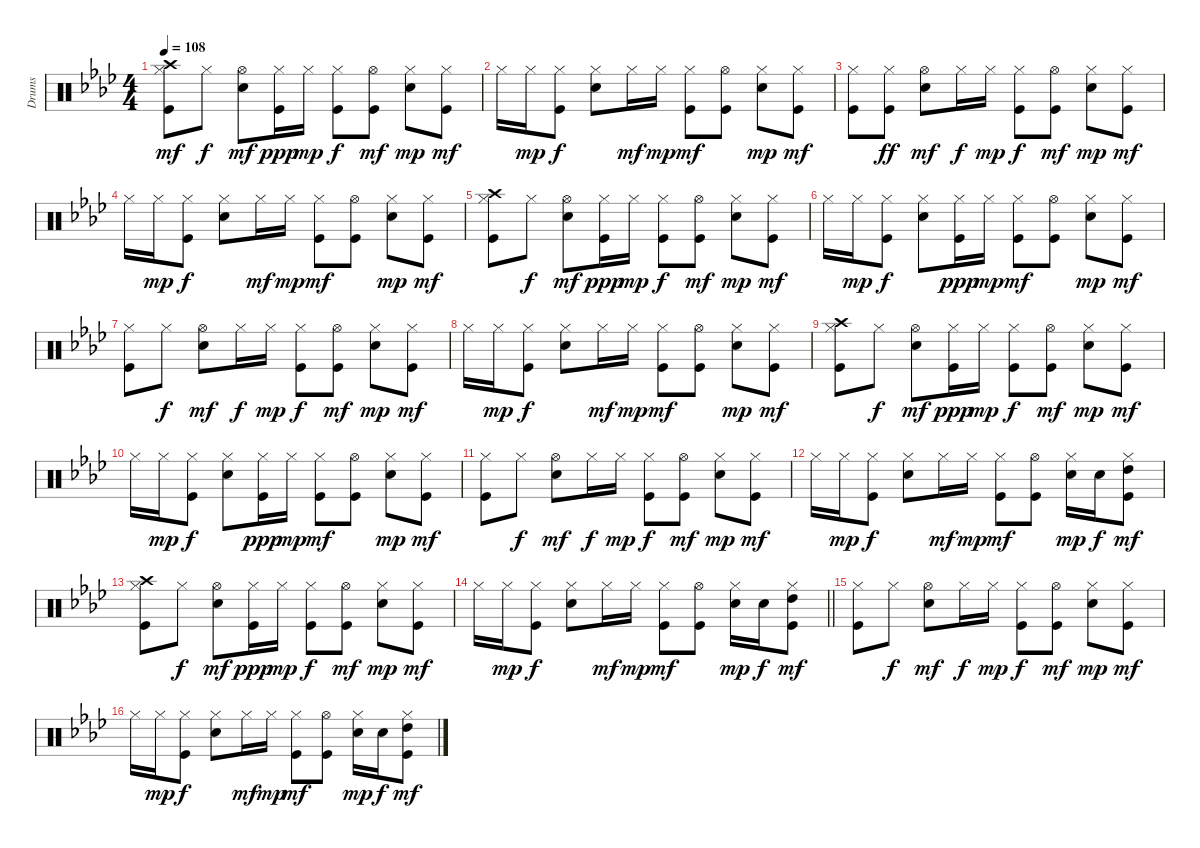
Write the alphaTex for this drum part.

\track ("Drums" "Drums") {instrument percussion}
\staff {score}
\articulation defaults
\ts (4 4)
\tempo 108
\clef neutral
\ks ab
("Kick (hit)" "Hi-Hat (closed)" "Crash high (hit)").8{dy mf} "Hi-Hat (closed)".8{dy f} ("Electric Snare (hit)" "Hi-Hat (open)").8{dy mf} ("Hi-Hat (closed)" "Kick (hit)").16{dy ppp} "Hi-Hat (closed)".16{dy mp} ("Kick (hit)" "Hi-Hat (closed)").8{dy f} ("Kick (hit)" "Hi-Hat (open)").8{dy mf} ("Electric Snare (hit)" "Hi-Hat (closed)").8{dy mp} ("Kick (hit)" "Hi-Hat (closed)").8{dy mf} |
"Hi-Hat (closed)".16 "Hi-Hat (closed)".16{dy mp} ("Kick (hit)" "Hi-Hat (closed)").8{dy f} ("Electric Snare (hit)" "Hi-Hat (closed)").8 "Hi-Hat (closed)".16{dy mf} "Hi-Hat (closed)".16{dy mp} ("Kick (hit)" "Hi-Hat (closed)").8{dy mf} ("Kick (hit)" "Hi-Hat (open)").8 ("Electric Snare (hit)" "Hi-Hat (closed)").8{dy mp} ("Kick (hit)" "Hi-Hat (closed)").8{dy mf} |
("Kick (hit)" "Hi-Hat (closed)").8 ("Kick (hit)" "Hi-Hat (closed)").8{dy ff} ("Electric Snare (hit)" "Hi-Hat (open)").8{dy mf} "Hi-Hat (closed)".16{dy f} "Hi-Hat (closed)".16{dy mp} ("Kick (hit)" "Hi-Hat (closed)").8{dy f} ("Kick (hit)" "Hi-Hat (open)").8{dy mf} ("Electric Snare (hit)" "Hi-Hat (closed)").8{dy mp} ("Kick (hit)" "Hi-Hat (closed)").8{dy mf} |
"Hi-Hat (closed)".16 "Hi-Hat (closed)".16{dy mp} ("Kick (hit)" "Hi-Hat (closed)").8{dy f} ("Electric Snare (hit)" "Hi-Hat (closed)").8 "Hi-Hat (closed)".16{dy mf} "Hi-Hat (closed)".16{dy mp} ("Kick (hit)" "Hi-Hat (closed)").8{dy mf} ("Kick (hit)" "Hi-Hat (open)").8 ("Electric Snare (hit)" "Hi-Hat (closed)").8{dy mp} ("Kick (hit)" "Hi-Hat (closed)").8{dy mf} |
("Kick (hit)" "Hi-Hat (closed)" "Crash high (hit)").8 "Hi-Hat (closed)".8{dy f} ("Electric Snare (hit)" "Hi-Hat (open)").8{dy mf} ("Hi-Hat (closed)" "Kick (hit)").16{dy ppp} "Hi-Hat (closed)".16{dy mp} ("Kick (hit)" "Hi-Hat (closed)").8{dy f} ("Kick (hit)" "Hi-Hat (open)").8{dy mf} ("Electric Snare (hit)" "Hi-Hat (closed)").8{dy mp} ("Kick (hit)" "Hi-Hat (closed)").8{dy mf} |
"Hi-Hat (closed)".16 "Hi-Hat (closed)".16{dy mp} ("Kick (hit)" "Hi-Hat (closed)").8{dy f} ("Electric Snare (hit)" "Hi-Hat (closed)").8 ("Hi-Hat (closed)" "Kick (hit)").16{dy ppp} "Hi-Hat (closed)".16{dy mp} ("Kick (hit)" "Hi-Hat (closed)").8{dy mf} ("Kick (hit)" "Hi-Hat (open)").8 ("Electric Snare (hit)" "Hi-Hat (closed)").8{dy mp} ("Kick (hit)" "Hi-Hat (closed)").8{dy mf} |
("Kick (hit)" "Hi-Hat (closed)").8 "Hi-Hat (closed)".8{dy f} ("Electric Snare (hit)" "Hi-Hat (open)").8{dy mf} "Hi-Hat (closed)".16{dy f} "Hi-Hat (closed)".16{dy mp} ("Kick (hit)" "Hi-Hat (closed)").8{dy f} ("Kick (hit)" "Hi-Hat (open)").8{dy mf} ("Electric Snare (hit)" "Hi-Hat (closed)").8{dy mp} ("Kick (hit)" "Hi-Hat (closed)").8{dy mf} |
"Hi-Hat (closed)".16 "Hi-Hat (closed)".16{dy mp} ("Kick (hit)" "Hi-Hat (closed)").8{dy f} ("Electric Snare (hit)" "Hi-Hat (closed)").8 "Hi-Hat (closed)".16{dy mf} "Hi-Hat (closed)".16{dy mp} ("Kick (hit)" "Hi-Hat (closed)").8{dy mf} ("Kick (hit)" "Hi-Hat (open)").8 ("Electric Snare (hit)" "Hi-Hat (closed)").8{dy mp} ("Kick (hit)" "Hi-Hat (closed)").8{dy mf} |
("Kick (hit)" "Hi-Hat (closed)" "Crash high (hit)").8 "Hi-Hat (closed)".8{dy f} ("Electric Snare (hit)" "Hi-Hat (open)").8{dy mf} ("Hi-Hat (closed)" "Kick (hit)").16{dy ppp} "Hi-Hat (closed)".16{dy mp} ("Kick (hit)" "Hi-Hat (closed)").8{dy f} ("Kick (hit)" "Hi-Hat (open)").8{dy mf} ("Electric Snare (hit)" "Hi-Hat (closed)").8{dy mp} ("Kick (hit)" "Hi-Hat (closed)").8{dy mf} |
"Hi-Hat (closed)".16 "Hi-Hat (closed)".16{dy mp} ("Kick (hit)" "Hi-Hat (closed)").8{dy f} ("Electric Snare (hit)" "Hi-Hat (closed)").8 ("Hi-Hat (closed)" "Kick (hit)").16{dy ppp} "Hi-Hat (closed)".16{dy mp} ("Kick (hit)" "Hi-Hat (closed)").8{dy mf} ("Kick (hit)" "Hi-Hat (open)").8 ("Electric Snare (hit)" "Hi-Hat (closed)").8{dy mp} ("Kick (hit)" "Hi-Hat (closed)").8{dy mf} |
("Kick (hit)" "Hi-Hat (closed)").8 "Hi-Hat (closed)".8{dy f} ("Electric Snare (hit)" "Hi-Hat (open)").8{dy mf} "Hi-Hat (closed)".16{dy f} "Hi-Hat (closed)".16{dy mp} ("Kick (hit)" "Hi-Hat (closed)").8{dy f} ("Kick (hit)" "Hi-Hat (open)").8{dy mf} ("Electric Snare (hit)" "Hi-Hat (closed)").8{dy mp} ("Kick (hit)" "Hi-Hat (closed)").8{dy mf} |
"Hi-Hat (closed)".16 "Hi-Hat (closed)".16{dy mp} ("Kick (hit)" "Hi-Hat (closed)").8{dy f} ("Electric Snare (hit)" "Hi-Hat (closed)").8 "Hi-Hat (closed)".16{dy mf} "Hi-Hat (closed)".16{dy mp} ("Kick (hit)" "Hi-Hat (closed)").8{dy mf} ("Kick (hit)" "Hi-Hat (open)").8 ("Electric Snare (hit)" "Hi-Hat (closed)").16{dy mp} "Electric Snare (hit)".16{dy f} ("Kick (hit)" "Hi-Hat (closed)" "High Tom (hit)").8{dy mf} |
("Kick (hit)" "Hi-Hat (closed)" "Crash high (hit)").8 "Hi-Hat (closed)".8{dy f} ("Electric Snare (hit)" "Hi-Hat (open)").8{dy mf} ("Hi-Hat (closed)" "Kick (hit)").16{dy ppp} "Hi-Hat (closed)".16{dy mp} ("Kick (hit)" "Hi-Hat (closed)").8{dy f} ("Kick (hit)" "Hi-Hat (open)").8{dy mf} ("Electric Snare (hit)" "Hi-Hat (closed)").8{dy mp} ("Kick (hit)" "Hi-Hat (closed)").8{dy mf} |
\barLineRight lightlight "Hi-Hat (closed)".16 "Hi-Hat (closed)".16{dy mp}
("Kick (hit)" "Hi-Hat (closed)").8{dy f} ("Electric Snare (hit)" "Hi-Hat (closed)").8 "Hi-Hat (closed)".16{dy mf} "Hi-Hat (closed)".16{dy mp} ("Kick (hit)" "Hi-Hat (closed)").8{dy mf} ("Kick (hit)" "Hi-Hat (open)").8 ("Electric Snare (hit)" "Hi-Hat (closed)").16{dy mp} "Electric Snare (hit)".16{dy f} ("Kick (hit)" "Hi-Hat (closed)" "High Tom (hit)").8{dy mf} |
("Kick (hit)" "Hi-Hat (closed)").8 "Hi-Hat (closed)".8{dy f} ("Electric Snare (hit)" "Hi-Hat (open)").8{dy mf} "Hi-Hat (closed)".16{dy f} "Hi-Hat (closed)".16{dy mp} ("Kick (hit)" "Hi-Hat (closed)").8{dy f} ("Kick (hit)" "Hi-Hat (open)").8{dy mf} ("Electric Snare (hit)" "Hi-Hat (closed)").8{dy mp} ("Kick (hit)" "Hi-Hat (closed)").8{dy mf} |
"Hi-Hat (closed)".16 "Hi-Hat (closed)".16{dy mp} ("Kick (hit)" "Hi-Hat (closed)").8{dy f} ("Electric Snare (hit)" "Hi-Hat (closed)").8 "Hi-Hat (closed)".16{dy mf} "Hi-Hat (closed)".16{dy mp} ("Kick (hit)" "Hi-Hat (closed)").8{dy mf} ("Kick (hit)" "Hi-Hat (open)").8 ("Electric Snare (hit)" "Hi-Hat (closed)").16{dy mp} "Electric Snare (hit)".16{dy f} ("Kick (hit)" "Hi-Hat (closed)" "High Tom (hit)").8{dy mf}
